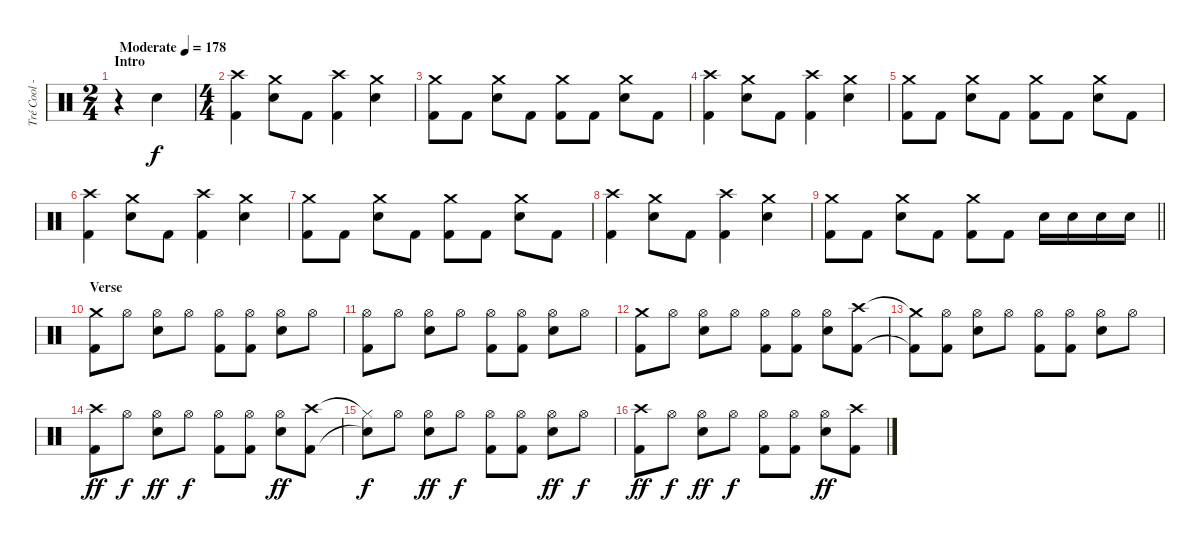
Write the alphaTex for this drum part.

\track ("Tré Cool - Drums" "Tré Cool -") {instrument percussion}
\staff {score}
\articulation defaults
\ts (2 4)
\section ("" "Intro")
\tempo (178 "Moderate")
\clef neutral
\ks c
r.4{dy f} "Electric Snare (hit)".4 |
\ts (4 4)
("Crash high (hit)" "Kick (hit) 2").4 ("Crash medium (hit)" "Electric Snare (hit)").8 "Kick (hit) 2".8 ("Crash high (hit)" "Kick (hit) 2").4 ("Crash medium (hit)" "Electric Snare (hit)").4 |
("Crash medium (hit)" "Kick (hit) 2").8 "Kick (hit) 2".8 ("Crash medium (hit)" "Electric Snare (hit)").8 "Kick (hit) 2".8 ("Crash medium (hit)" "Kick (hit) 2").8 "Kick (hit) 2".8 ("Crash medium (hit)" "Electric Snare (hit)").8 "Kick (hit) 2".8 |
("Crash high (hit)" "Kick (hit) 2").4 ("Crash medium (hit)" "Electric Snare (hit)").8 "Kick (hit) 2".8 ("Crash high (hit)" "Kick (hit) 2").4 ("Crash medium (hit)" "Electric Snare (hit)").4 |
("Crash medium (hit)" "Kick (hit) 2").8 "Kick (hit) 2".8 ("Crash medium (hit)" "Electric Snare (hit)").8 "Kick (hit) 2".8 ("Crash medium (hit)" "Kick (hit) 2").8 "Kick (hit) 2".8 ("Crash medium (hit)" "Electric Snare (hit)").8 "Kick (hit) 2".8 |
("Crash high (hit)" "Kick (hit) 2").4 ("Crash medium (hit)" "Electric Snare (hit)").8 "Kick (hit) 2".8 ("Crash high (hit)" "Kick (hit) 2").4 ("Crash medium (hit)" "Electric Snare (hit)").4 |
("Crash medium (hit)" "Kick (hit) 2").8 "Kick (hit) 2".8 ("Crash medium (hit)" "Electric Snare (hit)").8 "Kick (hit) 2".8 ("Crash medium (hit)" "Kick (hit) 2").8 "Kick (hit) 2".8 ("Crash medium (hit)" "Electric Snare (hit)").8 "Kick (hit) 2".8 |
("Crash high (hit)" "Kick (hit) 2").4 ("Crash medium (hit)" "Electric Snare (hit)").8 "Kick (hit) 2".8 ("Crash high (hit)" "Kick (hit) 2").4 ("Crash medium (hit)" "Electric Snare (hit)").4 |
\barLineRight lightlight
("Crash medium (hit)" "Kick (hit) 2").8 "Kick (hit) 2".8 ("Crash medium (hit)" "Electric Snare (hit)").8 "Kick (hit) 2".8 ("Crash medium (hit)" "Kick (hit) 2").8 "Kick (hit) 2".8 "Electric Snare (hit)".16 "Electric Snare (hit)".16 "Electric Snare (hit)".16 "Electric Snare (hit)".16 |
\section ("" "Verse")
("Crash medium (hit)" "Kick (hit) 2").8 "Hi-Hat (open)".8 ("Hi-Hat (open)" "Electric Snare (hit)").8 "Hi-Hat (open)".8 ("Hi-Hat (open)" "Kick (hit) 2").8 ("Hi-Hat (open)" "Kick (hit) 2").8 ("Hi-Hat (open)" "Electric Snare (hit)").8 "Hi-Hat (open)".8 |
("Hi-Hat (open)" "Kick (hit) 2").8 "Hi-Hat (open)".8 ("Hi-Hat (open)" "Electric Snare (hit)").8 "Hi-Hat (open)".8 ("Hi-Hat (open)" "Kick (hit) 2").8 ("Hi-Hat (open)" "Kick (hit) 2").8 ("Hi-Hat (open)" "Electric Snare (hit)").8 "Hi-Hat (open)".8 |
("Crash medium (hit)" "Kick (hit) 2").8 "Hi-Hat (open)".8 ("Hi-Hat (open)" "Electric Snare (hit)").8 "Hi-Hat (open)".8 ("Hi-Hat (open)" "Kick (hit) 2").8 ("Hi-Hat (open)" "Kick (hit) 2").8 ("Hi-Hat (open)" "Electric Snare (hit)").8 ("Crash high (hit)" "Kick (hit) 2").8 |
("Crash medium (hit)"{t} "Kick (hit) 2"{t}).8 ("Hi-Hat (open)" "Kick (hit) 2").8 ("Hi-Hat (open)" "Electric Snare (hit)").8 "Hi-Hat (open)".8 ("Hi-Hat (open)" "Kick (hit) 2").8 ("Hi-Hat (open)" "Kick (hit) 2").8 ("Hi-Hat (open)" "Electric Snare (hit)").8 "Hi-Hat (open)".8 |
("Crash high (hit)" "Kick (hit) 2").8{dy ff} "Hi-Hat (open)".8{dy f} ("Hi-Hat (open)" "Electric Snare (hit)").8{dy ff} "Hi-Hat (open)".8{dy f} ("Hi-Hat (open)" "Kick (hit) 2").8 ("Hi-Hat (open)" "Kick (hit) 2").8 ("Hi-Hat (open)" "Electric Snare (hit)").8{dy ff} ("Crash high (hit)" "Kick (hit) 2").8 |
("Hi-Hat (closed)"{t} "Snare (hit)"{t}).8{dy f} "Hi-Hat (open)".8 ("Hi-Hat (open)" "Electric Snare (hit)").8{dy ff} "Hi-Hat (open)".8{dy f} ("Hi-Hat (open)" "Kick (hit) 2").8 ("Hi-Hat (open)" "Kick (hit) 2").8 ("Hi-Hat (open)" "Electric Snare (hit)").8{dy ff} "Hi-Hat (open)".8{dy f} |
("Crash high (hit)" "Kick (hit) 2").8{dy ff} "Hi-Hat (open)".8{dy f} ("Hi-Hat (open)" "Electric Snare (hit)").8{dy ff} "Hi-Hat (open)".8{dy f} ("Hi-Hat (open)" "Kick (hit) 2").8 ("Hi-Hat (open)" "Kick (hit) 2").8 ("Hi-Hat (open)" "Electric Snare (hit)").8{dy ff} ("Crash high (hit)" "Kick (hit) 2").8
